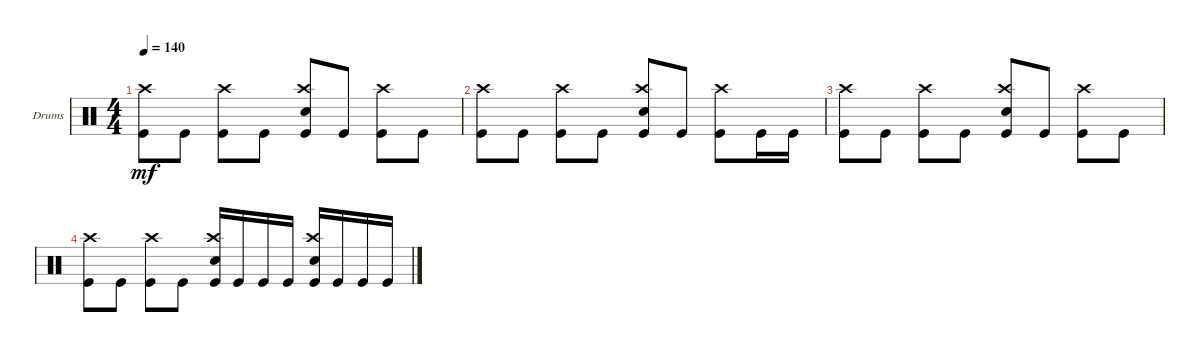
\bracketExtendMode groupsimilarinstruments
\firstSystemTrackNameOrientation horizontal
\otherSystemsTrackNameOrientation horizontal
\track ("Drumkit" "Drums") {instrument percussion}
\staff {score}
\articulation defaults
\ts (4 4)
\tempo 140
\clef neutral
\ks c
("Kick (hit)" "Crash high (hit)").8{dy mf} "Kick (hit)".8 ("Kick (hit)" "Crash high (hit)").8 "Kick (hit)".8 ("Kick (hit)" "Snare (hit) 2" "Crash high (hit)").8 "Kick (hit)".8 ("Kick (hit)" "Crash high (hit)").8 "Kick (hit)".8 |
("Kick (hit)" "Crash high (hit)").8 "Kick (hit)".8 ("Kick (hit)" "Crash high (hit)").8 "Kick (hit)".8 ("Kick (hit)" "Snare (hit) 2" "Crash high (hit)").8 "Kick (hit)".8 ("Kick (hit)" "Crash high (hit)").8 "Kick (hit)".16 "Kick (hit)".16 |
("Kick (hit)" "Crash high (hit)").8 "Kick (hit)".8 ("Kick (hit)" "Crash high (hit)").8 "Kick (hit)".8 ("Kick (hit)" "Snare (hit) 2" "Crash high (hit)").8 "Kick (hit)".8 ("Kick (hit)" "Crash high (hit)").8 "Kick (hit)".8 |
("Kick (hit)" "Crash high (hit)").8 "Kick (hit)".8 ("Kick (hit)" "Crash high (hit)").8 "Kick (hit)".8 ("Kick (hit)" "Snare (hit) 2" "Crash high (hit)").16 "Kick (hit)".16 "Kick (hit)".16 "Kick (hit)".16 ("Kick (hit)" "Crash high (hit)" "Snare (hit) 2").16 "Kick (hit)".16 "Kick (hit)".16 "Kick (hit)".16
